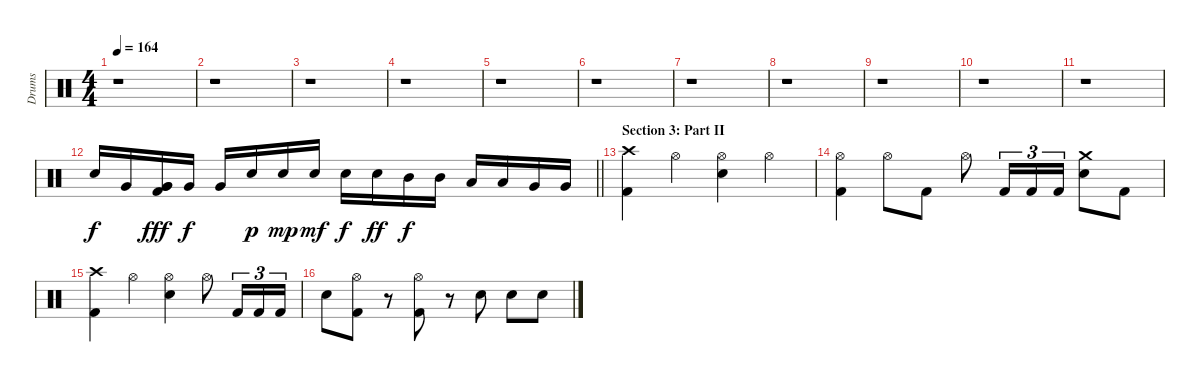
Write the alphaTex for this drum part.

\track ("Drums" "Drums") {instrument percussion}
\staff {score}
\articulation defaults
\ts (4 4)
\tempo 164
\clef neutral
\ks c
r.1{dy f} |
r.1 |
r.1 |
r.1 |
r.1 |
r.1 |
r.1 |
r.1 |
r.1 |
r.1 |
r.1 |
\barLineRight lightlight "Electric Snare (hit)".16 "Very Low Tom (hit)".16
("Very Low Tom (hit)" "Very Low Tom (hit)" "Kick (hit) 2").16{bd 60 dy fff} "Very Low Tom (hit)".16{dy f} "Very Low Tom (hit)".16 "Electric Snare (hit)".16{dy p} "Electric Snare (hit)".16{dy mp} "Electric Snare (hit)".16{dy mf} "Electric Snare (hit)".16{dy f} "Electric Snare (hit)".16{dy ff} "Mid Tom (hit)".16{dy f} "Mid Tom (hit)".16 "Low Tom (hit)".16 "Low Tom (hit)".16 "Very Low Tom (hit)".16 "Very Low Tom (hit)".16 |
\section ("" "Section 3: Part II")
("Crash high (hit)" "Kick (hit) 2").4 "Hi-Hat (open)".4 ("Hi-Hat (open)" "Electric Snare (hit)").4 "Hi-Hat (open)".4 |
("Hi-Hat (open)" "Kick (hit) 2").4 "Hi-Hat (open)".8 "Kick (hit) 2".8 "Hi-Hat (open)".8 "Kick (hit) 2".16{tu (3 2)} "Kick (hit) 2".16{tu (3 2)} "Kick (hit) 2".16{tu (3 2)} ("Crash medium (hit)" "Electric Snare (hit)").8 "Kick (hit) 2".8 |
("Crash high (hit)" "Kick (hit) 2").4 "Hi-Hat (open)".4 ("Hi-Hat (open)" "Electric Snare (hit)").4 "Hi-Hat (open)".8 "Kick (hit) 2".16{tu (3 2)} "Kick (hit) 2".16{tu (3 2)} "Kick (hit) 2".16{tu (3 2)} |
"Electric Snare (hit)".8 ("Hi-Hat (open)" "Kick (hit) 2").8 r.8 ("Hi-Hat (open)" "Kick (hit) 2").8 r.8 "Electric Snare (hit)".8 "Electric Snare (hit)".8 "Electric Snare (hit)".8
